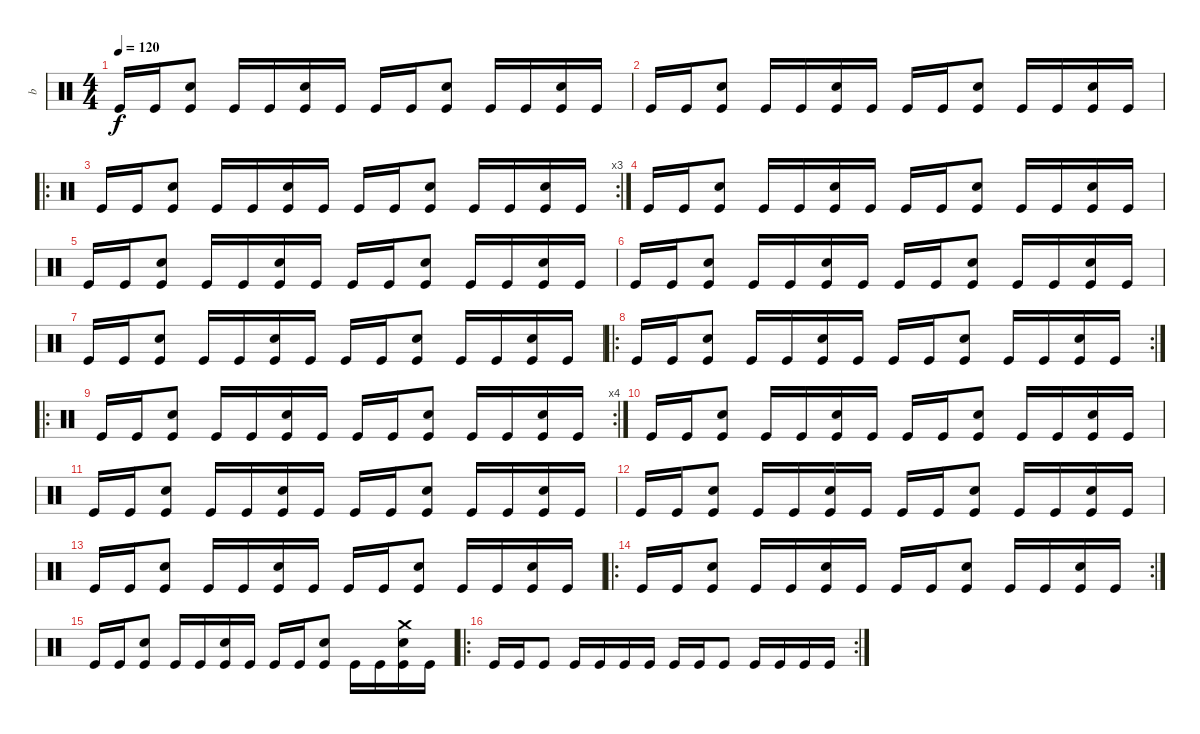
\track ("b" "b") {instrument percussion}
\staff {score}
\articulation defaults
\ts (4 4)
\tempo 120
\clef neutral
\ks c "Kick (hit)".16{dy f} "Kick (hit)".16
("Electric Snare (hit)" "Kick (hit)").8 "Kick (hit)".16 "Kick (hit)".16 ("Electric Snare (hit)" "Kick (hit)").16 "Kick (hit)".16 "Kick (hit)".16 "Kick (hit)".16 ("Electric Snare (hit)" "Kick (hit)").8 "Kick (hit)".16 "Kick (hit)".16 ("Electric Snare (hit)" "Kick (hit)").16 "Kick (hit)".16 |
"Kick (hit)".16 "Kick (hit)".16 ("Electric Snare (hit)" "Kick (hit)").8 "Kick (hit)".16 "Kick (hit)".16 ("Electric Snare (hit)" "Kick (hit)").16 "Kick (hit)".16 "Kick (hit)".16 "Kick (hit)".16 ("Electric Snare (hit)" "Kick (hit)").8 "Kick (hit)".16 "Kick (hit)".16 ("Electric Snare (hit)" "Kick (hit)").16 "Kick (hit)".16 |
\ro
\rc 3 "Kick (hit)".16 "Kick (hit)".16
("Electric Snare (hit)" "Kick (hit)").8 "Kick (hit)".16 "Kick (hit)".16 ("Electric Snare (hit)" "Kick (hit)").16 "Kick (hit)".16 "Kick (hit)".16 "Kick (hit)".16 ("Electric Snare (hit)" "Kick (hit)").8 "Kick (hit)".16 "Kick (hit)".16 ("Electric Snare (hit)" "Kick (hit)").16 "Kick (hit)".16 |
"Kick (hit)".16 "Kick (hit)".16 ("Electric Snare (hit)" "Kick (hit)").8 "Kick (hit)".16 "Kick (hit)".16 ("Electric Snare (hit)" "Kick (hit)").16 "Kick (hit)".16 "Kick (hit)".16 "Kick (hit)".16 ("Electric Snare (hit)" "Kick (hit)").8 "Kick (hit)".16 "Kick (hit)".16 ("Electric Snare (hit)" "Kick (hit)").16 "Kick (hit)".16 |
"Kick (hit)".16 "Kick (hit)".16 ("Electric Snare (hit)" "Kick (hit)").8 "Kick (hit)".16 "Kick (hit)".16 ("Electric Snare (hit)" "Kick (hit)").16 "Kick (hit)".16 "Kick (hit)".16 "Kick (hit)".16 ("Electric Snare (hit)" "Kick (hit)").8 "Kick (hit)".16 "Kick (hit)".16 ("Electric Snare (hit)" "Kick (hit)").16 "Kick (hit)".16 |
"Kick (hit)".16 "Kick (hit)".16 ("Electric Snare (hit)" "Kick (hit)").8 "Kick (hit)".16 "Kick (hit)".16 ("Electric Snare (hit)" "Kick (hit)").16 "Kick (hit)".16 "Kick (hit)".16 "Kick (hit)".16 ("Electric Snare (hit)" "Kick (hit)").8 "Kick (hit)".16 "Kick (hit)".16 ("Electric Snare (hit)" "Kick (hit)").16 "Kick (hit)".16 |
"Kick (hit)".16 "Kick (hit)".16 ("Electric Snare (hit)" "Kick (hit)").8 "Kick (hit)".16 "Kick (hit)".16 ("Electric Snare (hit)" "Kick (hit)").16 "Kick (hit)".16 "Kick (hit)".16 "Kick (hit)".16 ("Electric Snare (hit)" "Kick (hit)").8 "Kick (hit)".16 "Kick (hit)".16 ("Electric Snare (hit)" "Kick (hit)").16 "Kick (hit)".16 |
\ro
\rc 2 "Kick (hit)".16 "Kick (hit)".16
("Electric Snare (hit)" "Kick (hit)").8 "Kick (hit)".16 "Kick (hit)".16 ("Electric Snare (hit)" "Kick (hit)").16 "Kick (hit)".16 "Kick (hit)".16 "Kick (hit)".16 ("Electric Snare (hit)" "Kick (hit)").8 "Kick (hit)".16 "Kick (hit)".16 ("Electric Snare (hit)" "Kick (hit)").16 "Kick (hit)".16 |
\ro
\rc 4 "Kick (hit)".16 "Kick (hit)".16
("Electric Snare (hit)" "Kick (hit)").8 "Kick (hit)".16 "Kick (hit)".16 ("Electric Snare (hit)" "Kick (hit)").16 "Kick (hit)".16 "Kick (hit)".16 "Kick (hit)".16 ("Electric Snare (hit)" "Kick (hit)").8 "Kick (hit)".16 "Kick (hit)".16 ("Electric Snare (hit)" "Kick (hit)").16 "Kick (hit)".16 |
"Kick (hit)".16 "Kick (hit)".16 ("Electric Snare (hit)" "Kick (hit)").8 "Kick (hit)".16 "Kick (hit)".16 ("Electric Snare (hit)" "Kick (hit)").16 "Kick (hit)".16 "Kick (hit)".16 "Kick (hit)".16 ("Electric Snare (hit)" "Kick (hit)").8 "Kick (hit)".16 "Kick (hit)".16 ("Electric Snare (hit)" "Kick (hit)").16 "Kick (hit)".16 |
"Kick (hit)".16 "Kick (hit)".16 ("Electric Snare (hit)" "Kick (hit)").8 "Kick (hit)".16 "Kick (hit)".16 ("Electric Snare (hit)" "Kick (hit)").16 "Kick (hit)".16 "Kick (hit)".16 "Kick (hit)".16 ("Electric Snare (hit)" "Kick (hit)").8 "Kick (hit)".16 "Kick (hit)".16 ("Electric Snare (hit)" "Kick (hit)").16 "Kick (hit)".16 |
"Kick (hit)".16 "Kick (hit)".16 ("Electric Snare (hit)" "Kick (hit)").8 "Kick (hit)".16 "Kick (hit)".16 ("Electric Snare (hit)" "Kick (hit)").16 "Kick (hit)".16 "Kick (hit)".16 "Kick (hit)".16 ("Electric Snare (hit)" "Kick (hit)").8 "Kick (hit)".16 "Kick (hit)".16 ("Electric Snare (hit)" "Kick (hit)").16 "Kick (hit)".16 |
"Kick (hit)".16 "Kick (hit)".16 ("Electric Snare (hit)" "Kick (hit)").8 "Kick (hit)".16 "Kick (hit)".16 ("Electric Snare (hit)" "Kick (hit)").16 "Kick (hit)".16 "Kick (hit)".16 "Kick (hit)".16 ("Electric Snare (hit)" "Kick (hit)").8 "Kick (hit)".16 "Kick (hit)".16 ("Electric Snare (hit)" "Kick (hit)").16 "Kick (hit)".16 |
\ro
\rc 2 "Kick (hit)".16 "Kick (hit)".16
("Electric Snare (hit)" "Kick (hit)").8 "Kick (hit)".16 "Kick (hit)".16 ("Electric Snare (hit)" "Kick (hit)").16 "Kick (hit)".16 "Kick (hit)".16 "Kick (hit)".16 ("Electric Snare (hit)" "Kick (hit)").8 "Kick (hit)".16 "Kick (hit)".16 ("Electric Snare (hit)" "Kick (hit)").16 "Kick (hit)".16 |
"Kick (hit)".16 "Kick (hit)".16 ("Electric Snare (hit)" "Kick (hit)").8 "Kick (hit)".16 "Kick (hit)".16 ("Electric Snare (hit)" "Kick (hit)").16 "Kick (hit)".16 "Kick (hit)".16 "Kick (hit)".16 ("Electric Snare (hit)" "Kick (hit)").8 "Kick (hit)".16 "Kick (hit)".16 ("Crash medium (hit)" "Electric Snare (hit)" "Kick (hit)").16 "Kick (hit)".16 |
\ro
\rc 2 "Kick (hit)".16 "Kick (hit)".16 "Kick (hit)".8 "Kick (hit)".16 "Kick (hit)".16 "Kick (hit)".16 "Kick (hit)".16 "Kick (hit)".16 "Kick (hit)".16 "Kick (hit)".8 "Kick (hit)".16 "Kick (hit)".16 "Kick (hit)".16 "Kick (hit)".16
